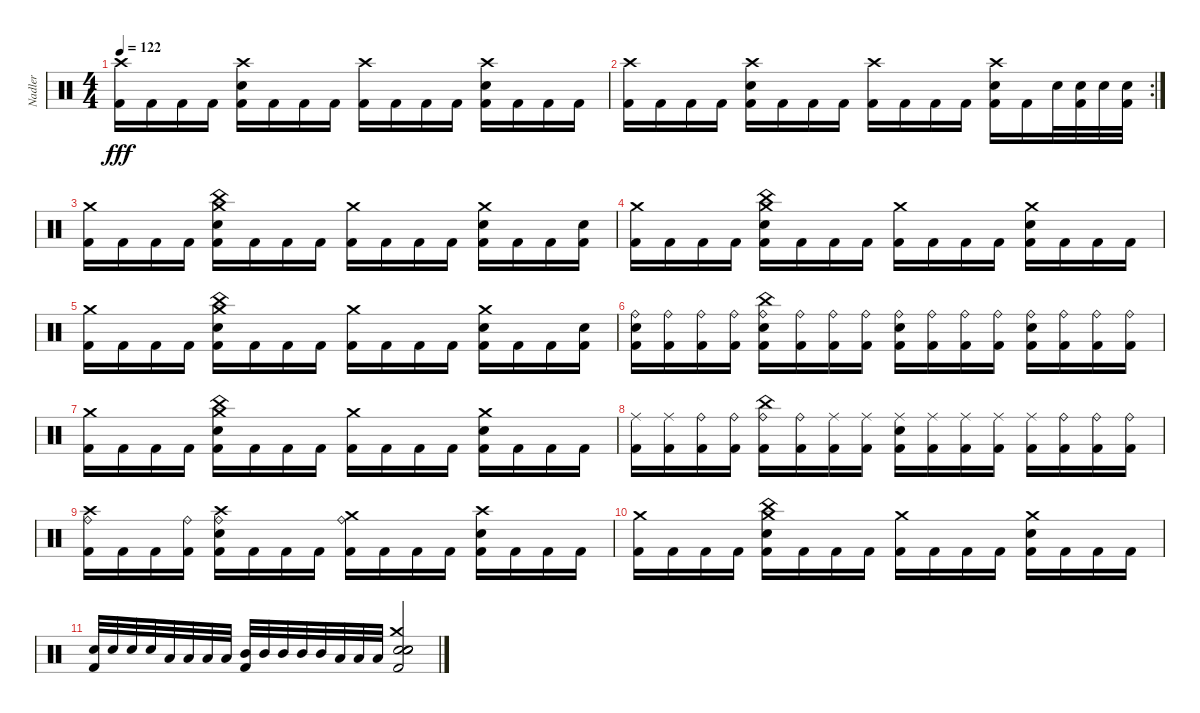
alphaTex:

\track ("Nadler" "Nadler") {mute instrument percussion}
\staff {score}
\articulation defaults
\ts (4 4)
\tempo 122
\clef neutral
\ks c
("Crash high (hit)" "Kick (hit) 2").16{dy fff balance 8} "Kick (hit) 2".16 "Kick (hit) 2".16 "Kick (hit) 2".16 ("Crash high (hit)" "Electric Snare (hit)" "Kick (hit) 2").16 "Kick (hit) 2".16 "Kick (hit) 2".16 "Kick (hit) 2".16 ("Crash high (hit)" "Kick (hit) 2").16 "Kick (hit) 2".16 "Kick (hit) 2".16 "Kick (hit) 2".16 ("Crash high (hit)" "Electric Snare (hit)" "Kick (hit) 2").16 "Kick (hit) 2".16 "Kick (hit) 2".16 "Kick (hit) 2".16 |
\rc 2
("Crash high (hit)" "Kick (hit) 2").16 "Kick (hit) 2".16 "Kick (hit) 2".16 "Kick (hit) 2".16 ("Crash high (hit)" "Electric Snare (hit)" "Kick (hit) 2").16 "Kick (hit) 2".16 "Kick (hit) 2".16 "Kick (hit) 2".16 ("Crash high (hit)" "Kick (hit) 2").16 "Kick (hit) 2".16 "Kick (hit) 2".16 "Kick (hit) 2".16 ("Crash high (hit)" "Electric Snare (hit)" "Kick (hit) 2").16 "Kick (hit) 2".16 "Electric Snare (hit)".32 ("Electric Snare (hit)" "Kick (hit) 2").32 "Electric Snare (hit)".32 ("Electric Snare (hit)" "Kick (hit) 2").32 |
("Crash medium (hit)" "Kick (hit) 2").16 "Kick (hit) 2".16 "Kick (hit) 2".16 "Kick (hit) 2".16 ("Crash medium (hit)" "China (hit)" "Electric Snare (hit)" "Kick (hit) 2").16 "Kick (hit) 2".16 "Kick (hit) 2".16 "Kick (hit) 2".16 ("Crash medium (hit)" "Kick (hit) 2").16 "Kick (hit) 2".16 "Kick (hit) 2".16 "Kick (hit) 2".16 ("Crash medium (hit)" "Electric Snare (hit)" "Kick (hit) 2").16 "Kick (hit) 2".16 "Kick (hit) 2".16 ("Electric Snare (hit)" "Kick (hit) 2").16 |
("Crash medium (hit)" "Kick (hit) 2").16 "Kick (hit) 2".16 "Kick (hit) 2".16 "Kick (hit) 2".16 ("Crash medium (hit)" "China (hit)" "Electric Snare (hit)" "Kick (hit) 2").16 "Kick (hit) 2".16 "Kick (hit) 2".16 "Kick (hit) 2".16 ("Crash medium (hit)" "Kick (hit) 2").16 "Kick (hit) 2".16 "Kick (hit) 2".16 "Kick (hit) 2".16 ("Crash medium (hit)" "Electric Snare (hit)" "Kick (hit) 2").16 "Kick (hit) 2".16 "Kick (hit) 2".16 "Kick (hit) 2".16 |
("Crash medium (hit)" "Kick (hit) 2").16 "Kick (hit) 2".16 "Kick (hit) 2".16 "Kick (hit) 2".16 ("Crash medium (hit)" "China (hit)" "Electric Snare (hit)" "Kick (hit) 2").16 "Kick (hit) 2".16 "Kick (hit) 2".16 "Kick (hit) 2".16 ("Crash medium (hit)" "Kick (hit) 2").16 "Kick (hit) 2".16 "Kick (hit) 2".16 "Kick (hit) 2".16 ("Crash medium (hit)" "Electric Snare (hit)" "Kick (hit) 2").16 "Kick (hit) 2".16 "Kick (hit) 2".16 ("Electric Snare (hit)" "Kick (hit) 2").16 |
("Ride (bell)" "Electric Snare (hit)" "Kick (hit) 2").16 ("Ride (bell)" "Kick (hit) 2").16 ("Ride (bell)" "Kick (hit) 2").16 ("Ride (bell)" "Kick (hit) 2").16 ("Ride (bell)" "China (hit)" "Electric Snare (hit)" "Kick (hit) 2").16 ("Ride (bell)" "Kick (hit) 2").16 ("Ride (bell)" "Kick (hit) 2").16 ("Ride (bell)" "Kick (hit) 2").16 ("Ride (bell)" "Electric Snare (hit)" "Kick (hit) 2").16 ("Ride (bell)" "Kick (hit) 2").16 ("Ride (bell)" "Kick (hit) 2").16 ("Ride (bell)" "Kick (hit) 2").16 ("Ride (bell)" "Electric Snare (hit)" "Kick (hit) 2").16 ("Ride (bell)" "Kick (hit) 2").16 ("Ride (bell)" "Kick (hit) 2").16 ("Ride (bell)" "Kick (hit) 2").16 |
("Crash medium (hit)" "Kick (hit) 2").16 "Kick (hit) 2".16 "Kick (hit) 2".16 "Kick (hit) 2".16 ("Crash medium (hit)" "China (hit)" "Electric Snare (hit)" "Kick (hit) 2").16 "Kick (hit) 2".16 "Kick (hit) 2".16 "Kick (hit) 2".16 ("Crash medium (hit)" "Kick (hit) 2").16 "Kick (hit) 2".16 "Kick (hit) 2".16 "Kick (hit) 2".16 ("Crash medium (hit)" "Electric Snare (hit)" "Kick (hit) 2").16 "Kick (hit) 2".16 "Kick (hit) 2".16 "Kick (hit) 2".16 |
("Ride (middle)" "Kick (hit) 2").16 ("Ride (middle)" "Kick (hit) 2").16 ("Ride (bell)" "Kick (hit) 2").16 ("Ride (bell)" "Kick (hit) 2").16 ("Ride (bell)" "China (hit)" "Kick (hit) 2").16 ("Ride (bell)" "Kick (hit) 2").16 ("Ride (middle)" "Kick (hit) 2").16 ("Ride (middle)" "Kick (hit) 2").16 ("Ride (middle)" "Electric Snare (hit)" "Kick (hit) 2").16 ("Ride (middle)" "Kick (hit) 2").16 ("Ride (middle)" "Kick (hit) 2").16 ("Ride (middle)" "Kick (hit) 2").16 ("Ride (middle)" "Kick (hit) 2").16 ("Ride (bell)" "Kick (hit) 2").16 ("Ride (bell)" "Kick (hit) 2").16 ("Ride (bell)" "Kick (hit) 2").16 |
("Crash high (hit)" "Ride (bell)" "Kick (hit) 2").16 "Kick (hit) 2".16 "Kick (hit) 2".16 ("Ride (bell)" "Kick (hit) 2").16 ("Crash high (hit)" "Ride (bell)" "Electric Snare (hit)" "Kick (hit) 2").16 "Kick (hit) 2".16 "Kick (hit) 2".16 "Kick (hit) 2".16 ("Crash medium (hit)" "Ride (bell)" "Kick (hit) 2").16 "Kick (hit) 2".16 "Kick (hit) 2".16 "Kick (hit) 2".16 ("Crash high (hit)" "Electric Snare (hit)" "Kick (hit) 2").16 "Kick (hit) 2".16 "Kick (hit) 2".16 "Kick (hit) 2".16 |
("Crash medium (hit)" "Kick (hit) 2").16 "Kick (hit) 2".16 "Kick (hit) 2".16 "Kick (hit) 2".16 ("Crash medium (hit)" "China (hit)" "Electric Snare (hit)" "Kick (hit) 2").16 "Kick (hit) 2".16 "Kick (hit) 2".16 "Kick (hit) 2".16 ("Crash medium (hit)" "Kick (hit) 2").16 "Kick (hit) 2".16 "Kick (hit) 2".16 "Kick (hit) 2".16 ("Crash medium (hit)" "Electric Snare (hit)" "Kick (hit) 2").16 "Kick (hit) 2".16 "Kick (hit) 2".16 "Kick (hit) 2".16 |
("Electric Snare (hit)" "Kick (hit) 2").32 "Electric Snare (hit)".32 "Electric Snare (hit)".32 "Electric Snare (hit)".32 "Low Floor Tom (hit)".32 "Low Floor Tom (hit)".32 "Low Floor Tom (hit)".32 "Low Floor Tom (hit)".32 ("Mid Tom (hit)" "Kick (hit) 2").32 "Mid Tom (hit)".32 "Mid Tom (hit)".32 "Mid Tom (hit)".32 "Mid Tom (hit)".32 "Low Tom (hit)".32 "Low Tom (hit)".32 "Low Tom (hit)".32 ("Crash medium (hit)" "Snare (hit)" "Electric Snare (hit)" "Snare (hit)" "Kick (hit) 2").2
